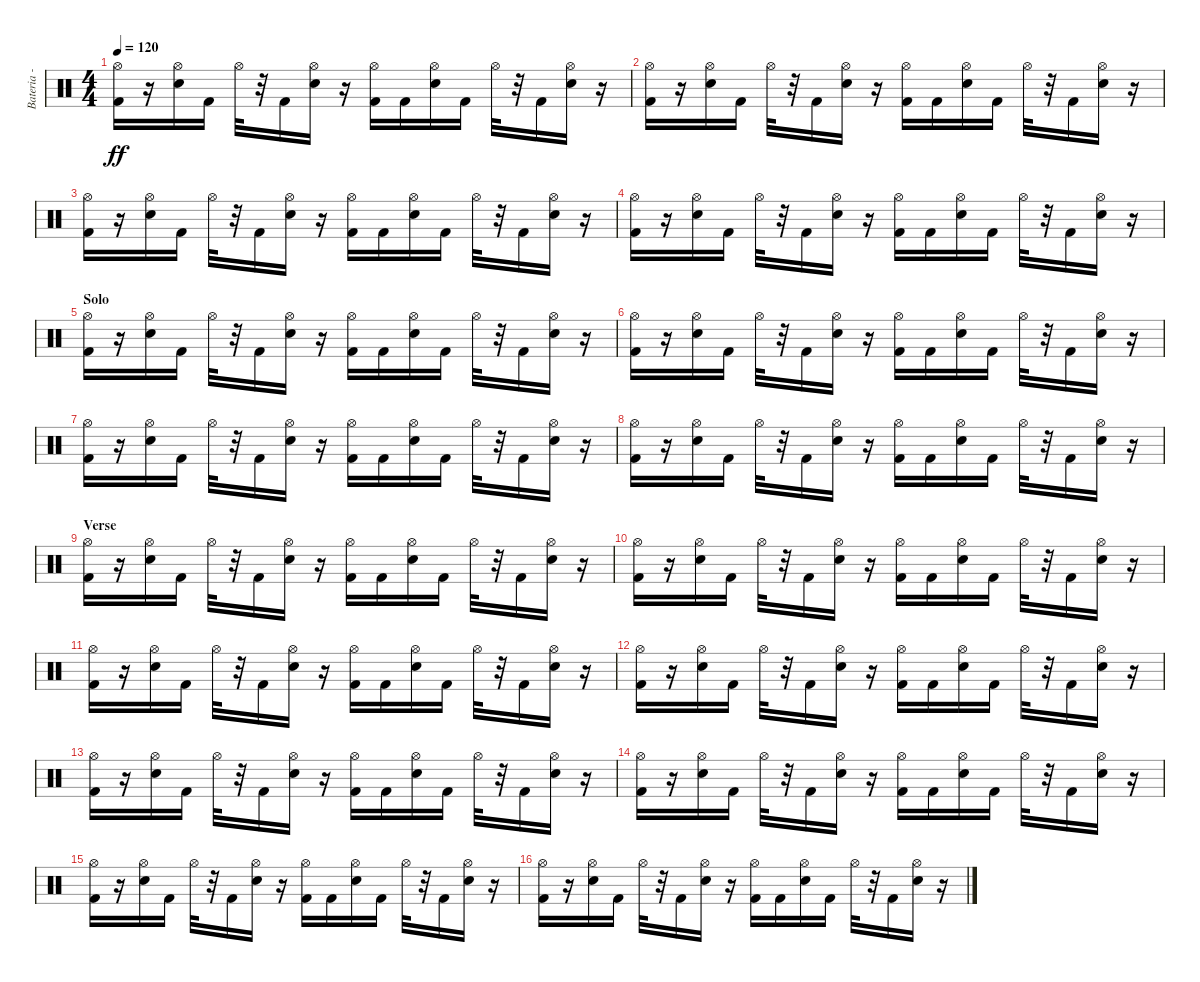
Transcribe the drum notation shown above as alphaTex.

\track ("Bateria - Marky" "Bateria - ") {instrument percussion}
\staff {score}
\articulation defaults
\ts (4 4)
\tempo 120
\clef neutral
\ks c
("Kick (hit) 2" "Hi-Hat (open)").16{dy ff} r.16 ("Electric Snare (hit)" "Hi-Hat (open)").16 "Kick (hit) 2".16 "Hi-Hat (open)".32 r.32 "Kick (hit) 2".16 ("Electric Snare (hit)" "Hi-Hat (open)").16 r.16 ("Kick (hit) 2" "Hi-Hat (open)").16 "Kick (hit) 2".16 ("Electric Snare (hit)" "Hi-Hat (open)").16 "Kick (hit) 2".16 "Hi-Hat (open)".32 r.32 "Kick (hit) 2".16 ("Electric Snare (hit)" "Hi-Hat (open)").16 r.16 |
("Kick (hit) 2" "Hi-Hat (open)").16 r.16 ("Electric Snare (hit)" "Hi-Hat (open)").16 "Kick (hit) 2".16 "Hi-Hat (open)".32 r.32 "Kick (hit) 2".16 ("Electric Snare (hit)" "Hi-Hat (open)").16 r.16 ("Kick (hit) 2" "Hi-Hat (open)").16 "Kick (hit) 2".16 ("Electric Snare (hit)" "Hi-Hat (open)").16 "Kick (hit) 2".16 "Hi-Hat (open)".32 r.32 "Kick (hit) 2".16 ("Electric Snare (hit)" "Hi-Hat (open)").16 r.16 |
("Kick (hit) 2" "Hi-Hat (open)").16 r.16 ("Electric Snare (hit)" "Hi-Hat (open)").16 "Kick (hit) 2".16 "Hi-Hat (open)".32 r.32 "Kick (hit) 2".16 ("Electric Snare (hit)" "Hi-Hat (open)").16 r.16 ("Kick (hit) 2" "Hi-Hat (open)").16 "Kick (hit) 2".16 ("Electric Snare (hit)" "Hi-Hat (open)").16 "Kick (hit) 2".16 "Hi-Hat (open)".32 r.32 "Kick (hit) 2".16 ("Electric Snare (hit)" "Hi-Hat (open)").16 r.16 |
("Kick (hit) 2" "Hi-Hat (open)").16 r.16 ("Electric Snare (hit)" "Hi-Hat (open)").16 "Kick (hit) 2".16 "Hi-Hat (open)".32 r.32 "Kick (hit) 2".16 ("Electric Snare (hit)" "Hi-Hat (open)").16 r.16 ("Kick (hit) 2" "Hi-Hat (open)").16 "Kick (hit) 2".16 ("Electric Snare (hit)" "Hi-Hat (open)").16 "Kick (hit) 2".16 "Hi-Hat (open)".32 r.32 "Kick (hit) 2".16 ("Electric Snare (hit)" "Hi-Hat (open)").16 r.16 |
\section ("" "Solo")
("Kick (hit) 2" "Hi-Hat (open)").16 r.16 ("Electric Snare (hit)" "Hi-Hat (open)").16 "Kick (hit) 2".16 "Hi-Hat (open)".32 r.32 "Kick (hit) 2".16 ("Electric Snare (hit)" "Hi-Hat (open)").16 r.16 ("Kick (hit) 2" "Hi-Hat (open)").16 "Kick (hit) 2".16 ("Electric Snare (hit)" "Hi-Hat (open)").16 "Kick (hit) 2".16 "Hi-Hat (open)".32 r.32 "Kick (hit) 2".16 ("Electric Snare (hit)" "Hi-Hat (open)").16 r.16 |
("Kick (hit) 2" "Hi-Hat (open)").16 r.16 ("Electric Snare (hit)" "Hi-Hat (open)").16 "Kick (hit) 2".16 "Hi-Hat (open)".32 r.32 "Kick (hit) 2".16 ("Electric Snare (hit)" "Hi-Hat (open)").16 r.16 ("Kick (hit) 2" "Hi-Hat (open)").16 "Kick (hit) 2".16 ("Electric Snare (hit)" "Hi-Hat (open)").16 "Kick (hit) 2".16 "Hi-Hat (open)".32 r.32 "Kick (hit) 2".16 ("Electric Snare (hit)" "Hi-Hat (open)").16 r.16 |
("Kick (hit) 2" "Hi-Hat (open)").16 r.16 ("Electric Snare (hit)" "Hi-Hat (open)").16 "Kick (hit) 2".16 "Hi-Hat (open)".32 r.32 "Kick (hit) 2".16 ("Electric Snare (hit)" "Hi-Hat (open)").16 r.16 ("Kick (hit) 2" "Hi-Hat (open)").16 "Kick (hit) 2".16 ("Electric Snare (hit)" "Hi-Hat (open)").16 "Kick (hit) 2".16 "Hi-Hat (open)".32 r.32 "Kick (hit) 2".16 ("Electric Snare (hit)" "Hi-Hat (open)").16 r.16 |
("Kick (hit) 2" "Hi-Hat (open)").16 r.16 ("Electric Snare (hit)" "Hi-Hat (open)").16 "Kick (hit) 2".16 "Hi-Hat (open)".32 r.32 "Kick (hit) 2".16 ("Electric Snare (hit)" "Hi-Hat (open)").16 r.16 ("Kick (hit) 2" "Hi-Hat (open)").16 "Kick (hit) 2".16 ("Electric Snare (hit)" "Hi-Hat (open)").16 "Kick (hit) 2".16 "Hi-Hat (open)".32 r.32 "Kick (hit) 2".16 ("Electric Snare (hit)" "Hi-Hat (open)").16 r.16 |
\section ("" "Verse")
("Kick (hit) 2" "Hi-Hat (open)").16 r.16 ("Electric Snare (hit)" "Hi-Hat (open)").16 "Kick (hit) 2".16 "Hi-Hat (open)".32 r.32 "Kick (hit) 2".16 ("Electric Snare (hit)" "Hi-Hat (open)").16 r.16 ("Kick (hit) 2" "Hi-Hat (open)").16 "Kick (hit) 2".16 ("Electric Snare (hit)" "Hi-Hat (open)").16 "Kick (hit) 2".16 "Hi-Hat (open)".32 r.32 "Kick (hit) 2".16 ("Electric Snare (hit)" "Hi-Hat (open)").16 r.16 |
("Kick (hit) 2" "Hi-Hat (open)").16 r.16 ("Electric Snare (hit)" "Hi-Hat (open)").16 "Kick (hit) 2".16 "Hi-Hat (open)".32 r.32 "Kick (hit) 2".16 ("Electric Snare (hit)" "Hi-Hat (open)").16 r.16 ("Kick (hit) 2" "Hi-Hat (open)").16 "Kick (hit) 2".16 ("Electric Snare (hit)" "Hi-Hat (open)").16 "Kick (hit) 2".16 "Hi-Hat (open)".32 r.32 "Kick (hit) 2".16 ("Electric Snare (hit)" "Hi-Hat (open)").16 r.16 |
("Kick (hit) 2" "Hi-Hat (open)").16 r.16 ("Electric Snare (hit)" "Hi-Hat (open)").16 "Kick (hit) 2".16 "Hi-Hat (open)".32 r.32 "Kick (hit) 2".16 ("Electric Snare (hit)" "Hi-Hat (open)").16 r.16 ("Kick (hit) 2" "Hi-Hat (open)").16 "Kick (hit) 2".16 ("Electric Snare (hit)" "Hi-Hat (open)").16 "Kick (hit) 2".16 "Hi-Hat (open)".32 r.32 "Kick (hit) 2".16 ("Electric Snare (hit)" "Hi-Hat (open)").16 r.16 |
("Kick (hit) 2" "Hi-Hat (open)").16 r.16 ("Electric Snare (hit)" "Hi-Hat (open)").16 "Kick (hit) 2".16 "Hi-Hat (open)".32 r.32 "Kick (hit) 2".16 ("Electric Snare (hit)" "Hi-Hat (open)").16 r.16 ("Kick (hit) 2" "Hi-Hat (open)").16 "Kick (hit) 2".16 ("Electric Snare (hit)" "Hi-Hat (open)").16 "Kick (hit) 2".16 "Hi-Hat (open)".32 r.32 "Kick (hit) 2".16 ("Electric Snare (hit)" "Hi-Hat (open)").16 r.16 |
("Kick (hit) 2" "Hi-Hat (open)").16 r.16 ("Electric Snare (hit)" "Hi-Hat (open)").16 "Kick (hit) 2".16 "Hi-Hat (open)".32 r.32 "Kick (hit) 2".16 ("Electric Snare (hit)" "Hi-Hat (open)").16 r.16 ("Kick (hit) 2" "Hi-Hat (open)").16 "Kick (hit) 2".16 ("Electric Snare (hit)" "Hi-Hat (open)").16 "Kick (hit) 2".16 "Hi-Hat (open)".32 r.32 "Kick (hit) 2".16 ("Electric Snare (hit)" "Hi-Hat (open)").16 r.16 |
("Kick (hit) 2" "Hi-Hat (open)").16 r.16 ("Electric Snare (hit)" "Hi-Hat (open)").16 "Kick (hit) 2".16 "Hi-Hat (open)".32 r.32 "Kick (hit) 2".16 ("Electric Snare (hit)" "Hi-Hat (open)").16 r.16 ("Kick (hit) 2" "Hi-Hat (open)").16 "Kick (hit) 2".16 ("Electric Snare (hit)" "Hi-Hat (open)").16 "Kick (hit) 2".16 "Hi-Hat (open)".32 r.32 "Kick (hit) 2".16 ("Electric Snare (hit)" "Hi-Hat (open)").16 r.16 |
("Kick (hit) 2" "Hi-Hat (open)").16 r.16 ("Electric Snare (hit)" "Hi-Hat (open)").16 "Kick (hit) 2".16 "Hi-Hat (open)".32 r.32 "Kick (hit) 2".16 ("Electric Snare (hit)" "Hi-Hat (open)").16 r.16 ("Kick (hit) 2" "Hi-Hat (open)").16 "Kick (hit) 2".16 ("Electric Snare (hit)" "Hi-Hat (open)").16 "Kick (hit) 2".16 "Hi-Hat (open)".32 r.32 "Kick (hit) 2".16 ("Electric Snare (hit)" "Hi-Hat (open)").16 r.16 |
("Kick (hit) 2" "Hi-Hat (open)").16 r.16 ("Electric Snare (hit)" "Hi-Hat (open)").16 "Kick (hit) 2".16 "Hi-Hat (open)".32 r.32 "Kick (hit) 2".16 ("Electric Snare (hit)" "Hi-Hat (open)").16 r.16 ("Kick (hit) 2" "Hi-Hat (open)").16 "Kick (hit) 2".16 ("Electric Snare (hit)" "Hi-Hat (open)").16 "Kick (hit) 2".16 "Hi-Hat (open)".32 r.32 "Kick (hit) 2".16 ("Electric Snare (hit)" "Hi-Hat (open)").16 r.16
